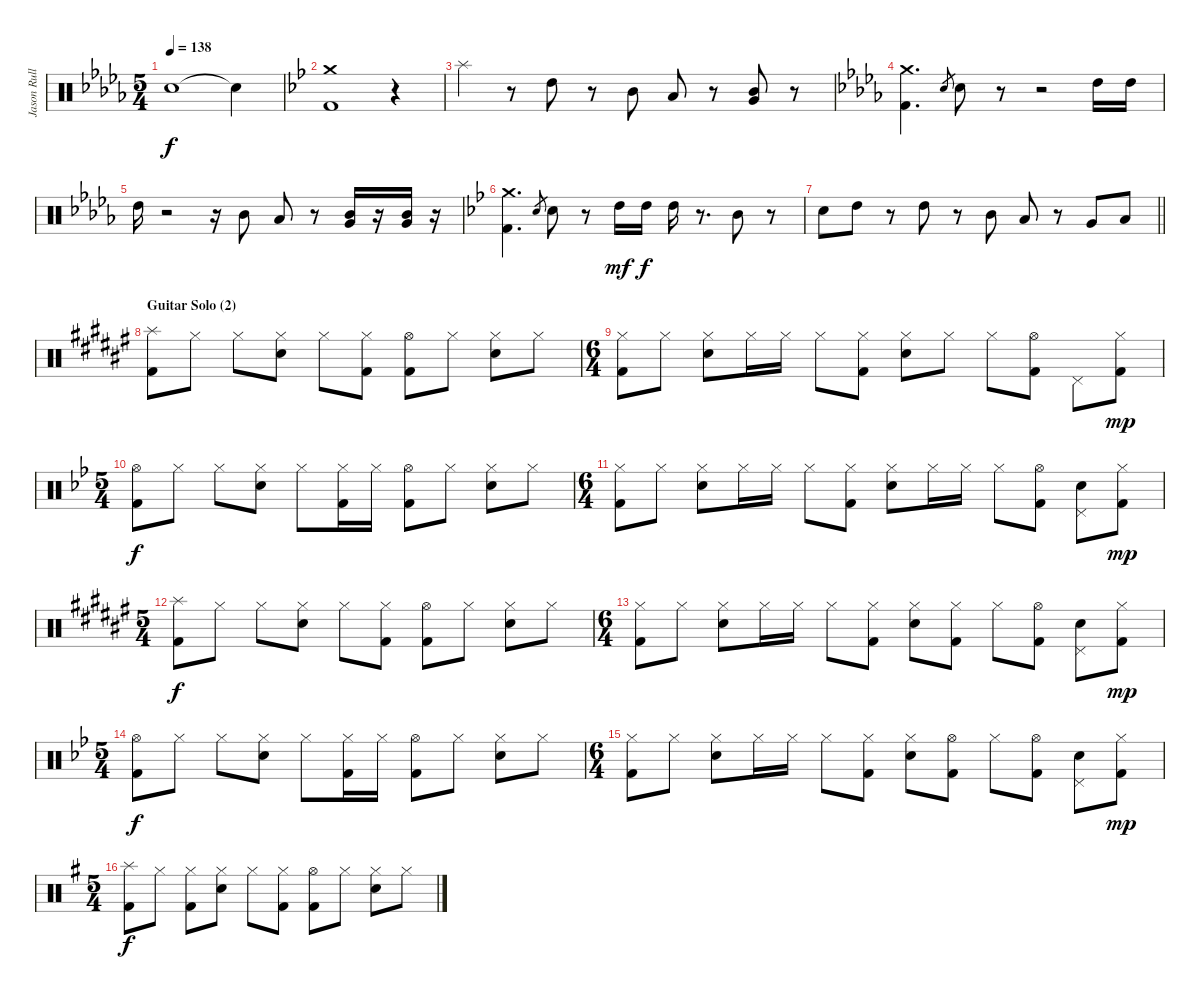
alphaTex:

\track ("Jason Rullo (drums)" "Jason Rull") {instrument percussion}
\staff {score}
\articulation defaults
\ts (5 4)
\tempo 138
\clef neutral
\ks bbminor "Snare (hit)"{t}.1{dy f} "Snare (hit)"{t}.4
|
\ks gminor
("Crash medium (hit)" "Kick (hit) 2").1 r.4 |
"Splash (hit)".4 r.8 "High Tom (hit)".8 r.8 "Mid Tom (hit)".8 "Low Tom (hit)".8 r.8 ("Mid Tom (hit)" "Very Low Tom (hit)").8 r.8 |
\ks bbminor
("Kick (hit) 2" "Crash medium (hit)").4{d} "Electric Snare (hit)".8{gr} "Electric Snare (hit)".8 r.8 r.2 "High Tom (hit)".16 "High Tom (hit)".16 |
"High Tom (hit)".16 r.2 r.16 "Mid Tom (hit)".8 "Low Tom (hit)".8 r.8 ("Mid Tom (hit)" "Very Low Tom (hit)").16 r.16 ("Mid Tom (hit)" "Very Low Tom (hit)").16 r.16 |
\ks gminor
("Kick (hit) 2" "Crash medium (hit)").4{d} "Electric Snare (hit)".8{gr} "Electric Snare (hit)".8 r.8 "High Tom (hit)".16{dy mf} "High Tom (hit)".16{dy f} "High Tom (hit)".16 r.8{d} "Mid Tom (hit)".8 r.8 |
\barLineRight lightlight "Electric Snare (hit)".8 "High Tom (hit)".8
r.8 "High Tom (hit)".8 r.8 "Mid Tom (hit)".8 "Low Tom (hit)".8 r.8 "Very Low Tom (hit)".8 "Low Floor Tom (hit)".8 |
\section ("" "Guitar Solo (2)")
\ks f#
("Splash (hit)" "Kick (hit) 2").8 "Hi-Hat (closed)".8 "Hi-Hat (closed)".8 ("Hi-Hat (closed)" "Electric Snare (hit)").8 "Hi-Hat (closed)".8 ("Hi-Hat (closed)" "Kick (hit) 2").8 ("Hi-Hat (open)" "Kick (hit) 2").8 "Hi-Hat (closed)".8 ("Hi-Hat (closed)" "Electric Snare (hit)").8 "Hi-Hat (closed)".8 |
\ts (6 4)
("Hi-Hat (closed)" "Kick (hit) 2").8 "Hi-Hat (closed)".8 ("Hi-Hat (closed)" "Electric Snare (hit)").8 "Hi-Hat (closed)".16 "Hi-Hat (closed)".16 "Hi-Hat (closed)".8 ("Hi-Hat (closed)" "Kick (hit) 2").8 ("Hi-Hat (closed)" "Electric Snare (hit)").8 "Hi-Hat (closed)".8 "Hi-Hat (closed)".8 ("Hi-Hat (open)" "Kick (hit) 2").8 "Pedal Hi-Hat (hit)".8 ("Kick (hit) 2" "Hi-Hat (closed)").8{dy mp} |
\ts (5 4)
\ks bb
("Hi-Hat (open)" "Kick (hit) 2").8{dy f} "Hi-Hat (closed)".8 "Hi-Hat (closed)".8 ("Hi-Hat (closed)" "Electric Snare (hit)").8 "Hi-Hat (closed)".8 ("Hi-Hat (closed)" "Kick (hit) 2").16 "Hi-Hat (closed)".16 ("Hi-Hat (open)" "Kick (hit) 2").8 "Hi-Hat (closed)".8 ("Hi-Hat (closed)" "Electric Snare (hit)").8 "Hi-Hat (closed)".8 |
\ts (6 4)
("Hi-Hat (closed)" "Kick (hit) 2").8 "Hi-Hat (closed)".8 ("Hi-Hat (closed)" "Electric Snare (hit)").8 "Hi-Hat (closed)".16 "Hi-Hat (closed)".16 "Hi-Hat (closed)".8 ("Hi-Hat (closed)" "Kick (hit) 2").8 ("Hi-Hat (closed)" "Electric Snare (hit)").8 "Hi-Hat (closed)".16 "Hi-Hat (closed)".16 "Hi-Hat (closed)".8 ("Hi-Hat (open)" "Kick (hit) 2").8 ("Electric Snare (hit)" "Pedal Hi-Hat (hit)").8 ("Kick (hit) 2" "Hi-Hat (closed)").8{dy mp} |
\ts (5 4)
\ks f#
("Splash (hit)" "Kick (hit) 2").8{dy f} "Hi-Hat (closed)".8 "Hi-Hat (closed)".8 ("Hi-Hat (closed)" "Electric Snare (hit)").8 "Hi-Hat (closed)".8 ("Hi-Hat (closed)" "Kick (hit) 2").8 ("Hi-Hat (open)" "Kick (hit) 2").8 "Hi-Hat (closed)".8 ("Hi-Hat (closed)" "Electric Snare (hit)").8 "Hi-Hat (closed)".8 |
\ts (6 4)
("Hi-Hat (closed)" "Kick (hit) 2").8 "Hi-Hat (closed)".8 ("Hi-Hat (closed)" "Electric Snare (hit)").8 "Hi-Hat (closed)".16 "Hi-Hat (closed)".16 "Hi-Hat (closed)".8 ("Hi-Hat (closed)" "Kick (hit) 2").8 ("Hi-Hat (closed)" "Electric Snare (hit)").8 ("Kick (hit) 2" "Hi-Hat (closed)").8 "Hi-Hat (closed)".8 ("Hi-Hat (open)" "Kick (hit) 2").8 ("Electric Snare (hit)" "Pedal Hi-Hat (hit)").8 ("Kick (hit) 2" "Hi-Hat (closed)").8{dy mp} |
\ts (5 4)
\ks bb
("Hi-Hat (open)" "Kick (hit) 2").8{dy f} "Hi-Hat (closed)".8 "Hi-Hat (closed)".8 ("Hi-Hat (closed)" "Electric Snare (hit)").8 "Hi-Hat (closed)".8 ("Hi-Hat (closed)" "Kick (hit) 2").16 "Hi-Hat (closed)".16 ("Hi-Hat (open)" "Kick (hit) 2").8 "Hi-Hat (closed)".8 ("Hi-Hat (closed)" "Electric Snare (hit)").8 "Hi-Hat (closed)".8 |
\ts (6 4)
("Hi-Hat (closed)" "Kick (hit) 2").8 "Hi-Hat (closed)".8 ("Hi-Hat (closed)" "Electric Snare (hit)").8 "Hi-Hat (closed)".16 "Hi-Hat (closed)".16 "Hi-Hat (closed)".8 ("Hi-Hat (closed)" "Kick (hit) 2").8 ("Hi-Hat (closed)" "Electric Snare (hit)").8 ("Hi-Hat (open)" "Kick (hit) 2").8 "Hi-Hat (closed)".8 ("Hi-Hat (open)" "Kick (hit) 2").8 ("Electric Snare (hit)" "Pedal Hi-Hat (hit)").8 ("Kick (hit) 2" "Hi-Hat (closed)").8{dy mp} |
\ts (5 4)
\ks g
("Splash (hit)" "Kick (hit) 2").8{dy f} "Hi-Hat (closed)".8 ("Kick (hit) 2" "Hi-Hat (closed)").8 ("Hi-Hat (closed)" "Electric Snare (hit)").8 "Hi-Hat (closed)".8 ("Hi-Hat (closed)" "Kick (hit) 2").8 ("Hi-Hat (open)" "Kick (hit) 2").8 "Hi-Hat (closed)".8 ("Hi-Hat (closed)" "Electric Snare (hit)").8 "Hi-Hat (closed)".8
